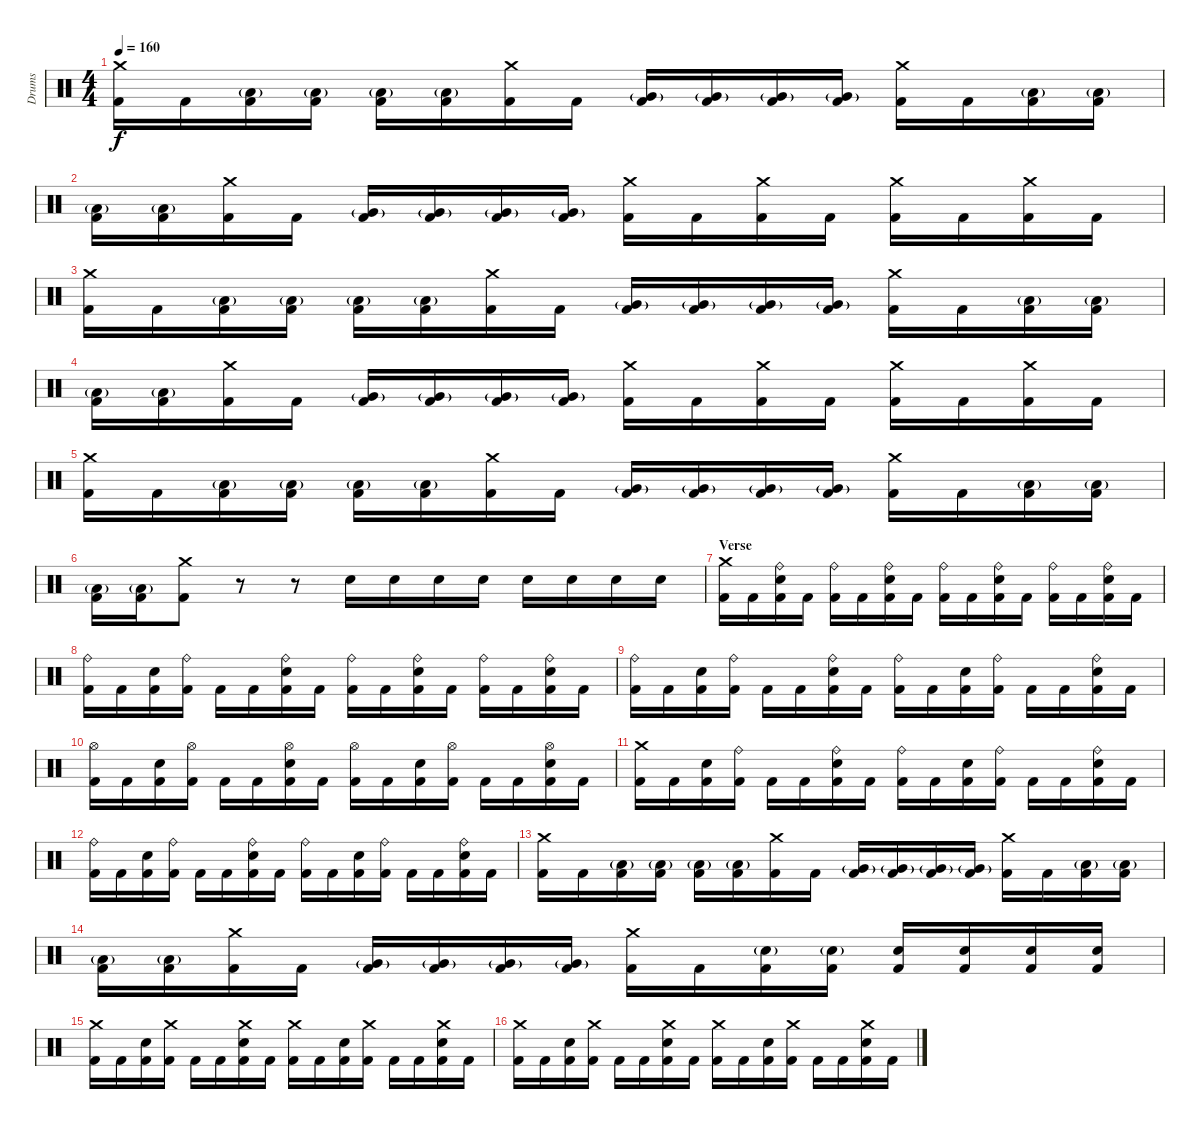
\track ("Drums" "Drums") {instrument percussion}
\staff {score}
\articulation defaults
\ts (4 4)
\tempo 160
\clef neutral
\ks c
("Crash medium (hit)" "Kick (hit) 2").16{dy f} "Kick (hit) 2".16 ("Low Tom (hit)"{g} "Kick (hit) 2").16 ("Low Tom (hit)"{g} "Kick (hit) 2").16 ("Low Tom (hit)"{g} "Kick (hit) 2").16 ("Low Tom (hit)"{g} "Kick (hit) 2").16 ("Crash medium (hit)" "Kick (hit) 2").16 "Kick (hit) 2".16 ("Very Low Tom (hit)"{g} "Kick (hit) 2").16 ("Very Low Tom (hit)"{g} "Kick (hit) 2").16 ("Very Low Tom (hit)"{g} "Kick (hit) 2").16 ("Very Low Tom (hit)"{g} "Kick (hit) 2").16 ("Crash medium (hit)" "Kick (hit) 2").16 "Kick (hit) 2".16 ("Low Tom (hit)"{g} "Kick (hit) 2").16 ("Low Tom (hit)"{g} "Kick (hit) 2").16 |
("Low Tom (hit)"{g} "Kick (hit) 2").16 ("Low Tom (hit)"{g} "Kick (hit) 2").16 ("Crash medium (hit)" "Kick (hit) 2").16 "Kick (hit) 2".16 ("Very Low Tom (hit)"{g} "Kick (hit) 2").16 ("Very Low Tom (hit)"{g} "Kick (hit) 2").16 ("Very Low Tom (hit)"{g} "Kick (hit) 2").16 ("Very Low Tom (hit)"{g} "Kick (hit) 2").16 ("Crash medium (hit)" "Kick (hit) 2").16 "Kick (hit) 2".16 ("Crash medium (hit)" "Kick (hit) 2").16 "Kick (hit) 2".16 ("Crash medium (hit)" "Kick (hit) 2").16 "Kick (hit) 2".16 ("Crash medium (hit)" "Kick (hit) 2").16 "Kick (hit) 2".16 |
("Crash medium (hit)" "Kick (hit) 2").16 "Kick (hit) 2".16 ("Low Tom (hit)"{g} "Kick (hit) 2").16 ("Low Tom (hit)"{g} "Kick (hit) 2").16 ("Low Tom (hit)"{g} "Kick (hit) 2").16 ("Low Tom (hit)"{g} "Kick (hit) 2").16 ("Crash medium (hit)" "Kick (hit) 2").16 "Kick (hit) 2".16 ("Very Low Tom (hit)"{g} "Kick (hit) 2").16 ("Very Low Tom (hit)"{g} "Kick (hit) 2").16 ("Very Low Tom (hit)"{g} "Kick (hit) 2").16 ("Very Low Tom (hit)"{g} "Kick (hit) 2").16 ("Crash medium (hit)" "Kick (hit) 2").16 "Kick (hit) 2".16 ("Low Tom (hit)"{g} "Kick (hit) 2").16 ("Low Tom (hit)"{g} "Kick (hit) 2").16 |
("Low Tom (hit)"{g} "Kick (hit) 2").16 ("Low Tom (hit)"{g} "Kick (hit) 2").16 ("Crash medium (hit)" "Kick (hit) 2").16 "Kick (hit) 2".16 ("Very Low Tom (hit)"{g} "Kick (hit) 2").16 ("Very Low Tom (hit)"{g} "Kick (hit) 2").16 ("Very Low Tom (hit)"{g} "Kick (hit) 2").16 ("Very Low Tom (hit)"{g} "Kick (hit) 2").16 ("Crash medium (hit)" "Kick (hit) 2").16 "Kick (hit) 2".16 ("Crash medium (hit)" "Kick (hit) 2").16 "Kick (hit) 2".16 ("Crash medium (hit)" "Kick (hit) 2").16 "Kick (hit) 2".16 ("Crash medium (hit)" "Kick (hit) 2").16 "Kick (hit) 2".16 |
("Crash medium (hit)" "Kick (hit) 2").16 "Kick (hit) 2".16 ("Low Tom (hit)"{g} "Kick (hit) 2").16 ("Low Tom (hit)"{g} "Kick (hit) 2").16 ("Low Tom (hit)"{g} "Kick (hit) 2").16 ("Low Tom (hit)"{g} "Kick (hit) 2").16 ("Crash medium (hit)" "Kick (hit) 2").16 "Kick (hit) 2".16 ("Very Low Tom (hit)"{g} "Kick (hit) 2").16 ("Very Low Tom (hit)"{g} "Kick (hit) 2").16 ("Very Low Tom (hit)"{g} "Kick (hit) 2").16 ("Very Low Tom (hit)"{g} "Kick (hit) 2").16 ("Crash medium (hit)" "Kick (hit) 2").16 "Kick (hit) 2".16 ("Low Tom (hit)"{g} "Kick (hit) 2").16 ("Low Tom (hit)"{g} "Kick (hit) 2").16 |
("Low Tom (hit)"{g} "Kick (hit) 2").16 ("Low Tom (hit)"{g} "Kick (hit) 2").16 ("Crash medium (hit)" "Kick (hit) 2").8 r.8 r.8 "Snare (hit) 2".16 "Snare (hit) 2".16 "Snare (hit) 2".16 "Snare (hit) 2".16 "Snare (hit) 2".16 "Snare (hit) 2".16 "Snare (hit) 2".16 "Snare (hit) 2".16 |
\section ("" "Verse")
("Crash medium (hit)" "Kick (hit) 2").16 "Kick (hit) 2".16 ("Ride (bell)" "Snare (hit) 2" "Kick (hit) 2").16 "Kick (hit) 2".16 ("Ride (bell)" "Kick (hit) 2").16 "Kick (hit) 2".16 ("Ride (bell)" "Snare (hit) 2" "Kick (hit) 2").16 "Kick (hit) 2".16 ("Ride (bell)" "Kick (hit) 2").16 "Kick (hit) 2".16 ("Ride (bell)" "Snare (hit) 2" "Kick (hit) 2").16 "Kick (hit) 2".16 ("Ride (bell)" "Kick (hit) 2").16 "Kick (hit) 2".16 ("Ride (bell)" "Snare (hit) 2" "Kick (hit) 2").16 "Kick (hit) 2".16 |
("Ride (bell)" "Kick (hit) 2").16 "Kick (hit) 2".16 ("Snare (hit) 2" "Kick (hit) 2").16 ("Ride (bell)" "Kick (hit) 2").16 "Kick (hit) 2".16 "Kick (hit) 2".16 ("Ride (bell)" "Snare (hit) 2" "Kick (hit) 2").16 "Kick (hit) 2".16 ("Ride (bell)" "Kick (hit) 2").16 "Kick (hit) 2".16 ("Ride (bell)" "Snare (hit) 2" "Kick (hit) 2").16 "Kick (hit) 2".16 ("Ride (bell)" "Kick (hit) 2").16 "Kick (hit) 2".16 ("Ride (bell)" "Snare (hit) 2" "Kick (hit) 2").16 "Kick (hit) 2".16 |
("Ride (bell)" "Kick (hit) 2").16 "Kick (hit) 2".16 ("Snare (hit) 2" "Kick (hit) 2").16 ("Ride (bell)" "Kick (hit) 2").16 "Kick (hit) 2".16 "Kick (hit) 2".16 ("Ride (bell)" "Snare (hit) 2" "Kick (hit) 2").16 "Kick (hit) 2".16 ("Ride (bell)" "Kick (hit) 2").16 "Kick (hit) 2".16 ("Snare (hit) 2" "Kick (hit) 2").16 ("Ride (bell)" "Kick (hit) 2").16 "Kick (hit) 2".16 "Kick (hit) 2".16 ("Ride (bell)" "Snare (hit) 2" "Kick (hit) 2").16 "Kick (hit) 2".16 |
("Hi-Hat (open)" "Kick (hit) 2").16 "Kick (hit) 2".16 ("Snare (hit) 2" "Kick (hit) 2").16 ("Hi-Hat (open)" "Kick (hit) 2").16 "Kick (hit) 2".16 "Kick (hit) 2".16 ("Hi-Hat (open)" "Snare (hit) 2" "Kick (hit) 2").16 "Kick (hit) 2".16 ("Hi-Hat (open)" "Kick (hit) 2").16 "Kick (hit) 2".16 ("Snare (hit) 2" "Kick (hit) 2").16 ("Hi-Hat (open)" "Kick (hit) 2").16 "Kick (hit) 2".16 "Kick (hit) 2".16 ("Hi-Hat (open)" "Snare (hit) 2" "Kick (hit) 2").16 "Kick (hit) 2".16 |
("Crash medium (hit)" "Kick (hit) 2").16 "Kick (hit) 2".16 ("Snare (hit) 2" "Kick (hit) 2").16 ("Ride (bell)" "Kick (hit) 2").16 "Kick (hit) 2".16 "Kick (hit) 2".16 ("Ride (bell)" "Snare (hit) 2" "Kick (hit) 2").16 "Kick (hit) 2".16 ("Ride (bell)" "Kick (hit) 2").16 "Kick (hit) 2".16 ("Snare (hit) 2" "Kick (hit) 2").16 ("Ride (bell)" "Kick (hit) 2").16 "Kick (hit) 2".16 "Kick (hit) 2".16 ("Ride (bell)" "Snare (hit) 2" "Kick (hit) 2").16 "Kick (hit) 2".16 |
("Ride (bell)" "Kick (hit) 2").16 "Kick (hit) 2".16 ("Snare (hit) 2" "Kick (hit) 2").16 ("Ride (bell)" "Kick (hit) 2").16 "Kick (hit) 2".16 "Kick (hit) 2".16 ("Ride (bell)" "Snare (hit) 2" "Kick (hit) 2").16 "Kick (hit) 2".16 ("Ride (bell)" "Kick (hit) 2").16 "Kick (hit) 2".16 ("Snare (hit) 2" "Kick (hit) 2").16 ("Ride (bell)" "Kick (hit) 2").16 "Kick (hit) 2".16 "Kick (hit) 2".16 ("Ride (bell)" "Snare (hit) 2" "Kick (hit) 2").16 "Kick (hit) 2".16 |
("Crash medium (hit)" "Kick (hit) 2").16 "Kick (hit) 2".16 ("Low Tom (hit)"{g} "Kick (hit) 2").16 ("Low Tom (hit)"{g} "Kick (hit) 2").16 ("Low Tom (hit)"{g} "Kick (hit) 2").16 ("Low Tom (hit)"{g} "Kick (hit) 2").16 ("Crash medium (hit)" "Kick (hit) 2").16 "Kick (hit) 2".16 ("Very Low Tom (hit)"{g} "Kick (hit) 2").16 ("Very Low Tom (hit)"{g} "Kick (hit) 2").16 ("Very Low Tom (hit)"{g} "Kick (hit) 2").16 ("Very Low Tom (hit)"{g} "Kick (hit) 2").16 ("Crash medium (hit)" "Kick (hit) 2").16 "Kick (hit) 2".16 ("Low Tom (hit)"{g} "Kick (hit) 2").16 ("Low Tom (hit)"{g} "Kick (hit) 2").16 |
("Low Tom (hit)"{g} "Kick (hit) 2").16 ("Low Tom (hit)"{g} "Kick (hit) 2").16 ("Crash medium (hit)" "Kick (hit) 2").16 "Kick (hit) 2".16 ("Very Low Tom (hit)"{g} "Kick (hit) 2").16 ("Very Low Tom (hit)"{g} "Kick (hit) 2").16 ("Very Low Tom (hit)"{g} "Kick (hit) 2").16 ("Very Low Tom (hit)"{g} "Kick (hit) 2").16 ("Crash medium (hit)" "Kick (hit) 2").16 "Kick (hit) 2".16 ("Snare (hit) 2"{g} "Kick (hit) 2").16 ("Snare (hit) 2"{g} "Kick (hit) 2").16 ("Snare (hit) 2" "Kick (hit) 2").16 ("Snare (hit) 2" "Kick (hit) 2").16 ("Snare (hit) 2" "Kick (hit) 2").16 ("Snare (hit) 2" "Kick (hit) 2").16 |
("Crash medium (hit)" "Kick (hit) 2").16 "Kick (hit) 2".16 ("Snare (hit) 2" "Kick (hit) 2").16 ("Crash medium (hit)" "Kick (hit) 2").16 "Kick (hit) 2".16 "Kick (hit) 2".16 ("Crash medium (hit)" "Snare (hit) 2" "Kick (hit) 2").16 "Kick (hit) 2".16 ("Crash medium (hit)" "Kick (hit) 2").16 "Kick (hit) 2".16 ("Snare (hit) 2" "Kick (hit) 2").16 ("Crash medium (hit)" "Kick (hit) 2").16 "Kick (hit) 2".16 "Kick (hit) 2".16 ("Crash medium (hit)" "Snare (hit) 2" "Kick (hit) 2").16 "Kick (hit) 2".16 |
("Crash medium (hit)" "Kick (hit) 2").16 "Kick (hit) 2".16 ("Snare (hit) 2" "Kick (hit) 2").16 ("Crash medium (hit)" "Kick (hit) 2").16 "Kick (hit) 2".16 "Kick (hit) 2".16 ("Crash medium (hit)" "Snare (hit) 2" "Kick (hit) 2").16 "Kick (hit) 2".16 ("Crash medium (hit)" "Kick (hit) 2").16 "Kick (hit) 2".16 ("Snare (hit) 2" "Kick (hit) 2").16 ("Crash medium (hit)" "Kick (hit) 2").16 "Kick (hit) 2".16 "Kick (hit) 2".16 ("Crash medium (hit)" "Snare (hit) 2" "Kick (hit) 2").16 "Kick (hit) 2".16
